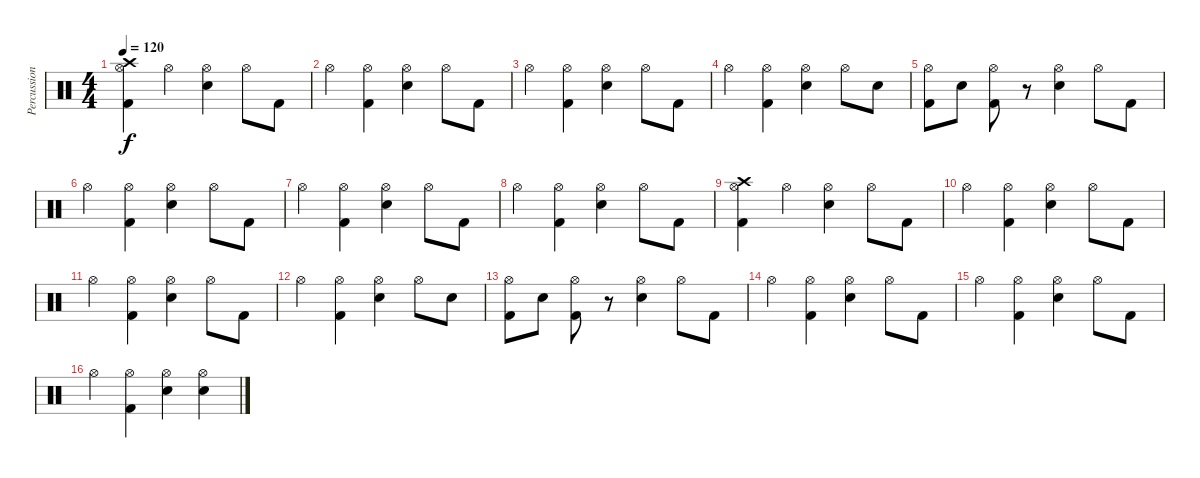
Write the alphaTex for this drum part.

\track ("Percussion" "Percussion") {instrument percussion}
\staff {score}
\articulation defaults
\ts (4 4)
\tempo 120
\clef neutral
\ks c
("Crash high (hit)" "Hi-Hat (open)" "Kick (hit) 2").4{dy f} "Hi-Hat (open)".4 ("Hi-Hat (open)" "Electric Snare (hit)").4 "Hi-Hat (open)".8 "Kick (hit) 2".8 |
"Hi-Hat (open)".4 ("Hi-Hat (open)" "Kick (hit) 2").4 ("Hi-Hat (open)" "Electric Snare (hit)").4 "Hi-Hat (open)".8 "Kick (hit) 2".8 |
"Hi-Hat (open)".4 ("Hi-Hat (open)" "Kick (hit) 2").4 ("Hi-Hat (open)" "Electric Snare (hit)").4 "Hi-Hat (open)".8 "Kick (hit) 2".8 |
"Hi-Hat (open)".4 ("Hi-Hat (open)" "Kick (hit) 2").4 ("Hi-Hat (open)" "Electric Snare (hit)").4 "Hi-Hat (open)".8 "Electric Snare (hit)".8 |
("Hi-Hat (open)" "Kick (hit) 2").8 "Electric Snare (hit)".8 ("Hi-Hat (open)" "Kick (hit) 2").8 r.8 ("Hi-Hat (open)" "Electric Snare (hit)").4 "Hi-Hat (open)".8 "Kick (hit) 2".8 |
"Hi-Hat (open)".4 ("Hi-Hat (open)" "Kick (hit) 2").4 ("Hi-Hat (open)" "Electric Snare (hit)").4 "Hi-Hat (open)".8 "Kick (hit) 2".8 |
"Hi-Hat (open)".4 ("Hi-Hat (open)" "Kick (hit) 2").4 ("Hi-Hat (open)" "Electric Snare (hit)").4 "Hi-Hat (open)".8 "Kick (hit) 2".8 |
"Hi-Hat (open)".4 ("Hi-Hat (open)" "Kick (hit) 2").4 ("Hi-Hat (open)" "Electric Snare (hit)").4 "Hi-Hat (open)".8 "Kick (hit) 2".8 |
("Crash high (hit)" "Hi-Hat (open)" "Kick (hit) 2").4 "Hi-Hat (open)".4 ("Hi-Hat (open)" "Electric Snare (hit)").4 "Hi-Hat (open)".8 "Kick (hit) 2".8 |
"Hi-Hat (open)".4 ("Hi-Hat (open)" "Kick (hit) 2").4 ("Hi-Hat (open)" "Electric Snare (hit)").4 "Hi-Hat (open)".8 "Kick (hit) 2".8 |
"Hi-Hat (open)".4 ("Hi-Hat (open)" "Kick (hit) 2").4 ("Hi-Hat (open)" "Electric Snare (hit)").4 "Hi-Hat (open)".8 "Kick (hit) 2".8 |
"Hi-Hat (open)".4 ("Hi-Hat (open)" "Kick (hit) 2").4 ("Hi-Hat (open)" "Electric Snare (hit)").4 "Hi-Hat (open)".8 "Electric Snare (hit)".8 |
("Hi-Hat (open)" "Kick (hit) 2").8 "Electric Snare (hit)".8 ("Hi-Hat (open)" "Kick (hit) 2").8 r.8 ("Hi-Hat (open)" "Electric Snare (hit)").4 "Hi-Hat (open)".8 "Kick (hit) 2".8 |
"Hi-Hat (open)".4 ("Hi-Hat (open)" "Kick (hit) 2").4 ("Hi-Hat (open)" "Electric Snare (hit)").4 "Hi-Hat (open)".8 "Kick (hit) 2".8 |
"Hi-Hat (open)".4 ("Hi-Hat (open)" "Kick (hit) 2").4 ("Hi-Hat (open)" "Electric Snare (hit)").4 "Hi-Hat (open)".8 "Kick (hit) 2".8 |
"Hi-Hat (open)".4 ("Hi-Hat (open)" "Kick (hit) 2").4 ("Hi-Hat (open)" "Electric Snare (hit)").4 ("Hi-Hat (open)" "Electric Snare (hit)").4
